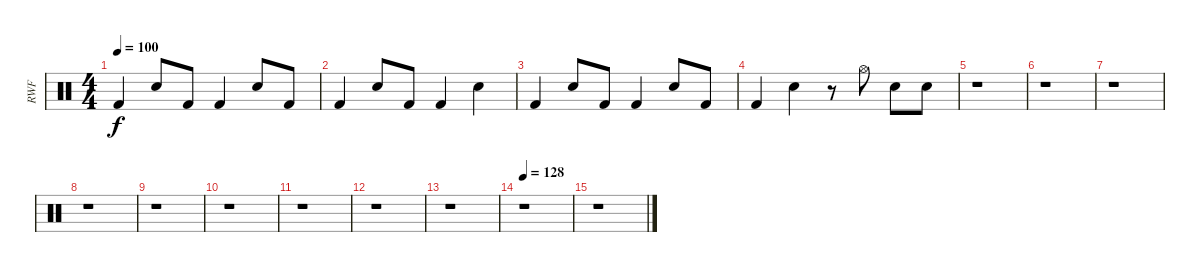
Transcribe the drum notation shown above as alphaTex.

\track ("RWF" "RWF") {instrument percussion}
\staff {score}
\articulation defaults
\ts (4 4)
\tempo 100
\clef neutral
\ks c "Kick (hit) 2".4{dy f} "Electric Snare (hit)".8 "Kick (hit) 2".8 "Kick (hit) 2".4 "Electric Snare (hit)".8 "Kick (hit) 2".8
|
"Kick (hit) 2".4 "Electric Snare (hit)".8 "Kick (hit) 2".8 "Kick (hit) 2".4 "Electric Snare (hit)".4 |
"Kick (hit) 2".4 "Electric Snare (hit)".8 "Kick (hit) 2".8 "Kick (hit) 2".4 "Electric Snare (hit)".8 "Kick (hit) 2".8 |
"Kick (hit) 2".4 "Electric Snare (hit)".4 r.8 "Hi-Hat (open)".8 "Electric Snare (hit)".8 "Electric Snare (hit)".8 |
r.1 |
r.1 |
r.1 |
r.1 |
r.1 |
r.1 |
r.1 |
r.1 |
r.1 |
\tempo 128
r.1 |
r.1
